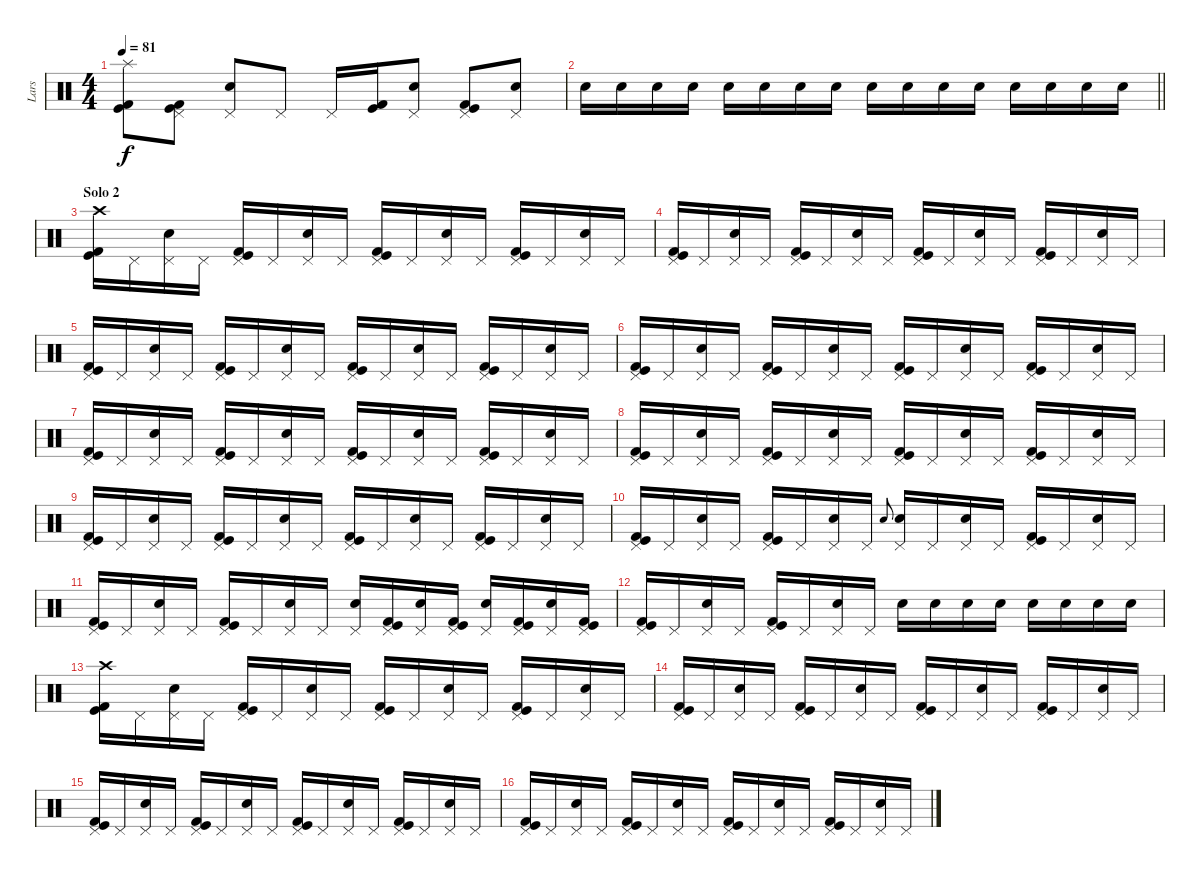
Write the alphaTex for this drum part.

\track ("Lars" "Lars") {instrument percussion}
\staff {score}
\articulation defaults
\ts (4 4)
\tempo 81
\clef neutral
\ks c
("Splash (hit)" "Kick (hit)" "Kick (hit) 2").8{dy f} ("Pedal Hi-Hat (hit)" "Kick (hit)" "Kick (hit) 2").8 ("Pedal Hi-Hat (hit)" "Electric Snare (hit)").8 "Pedal Hi-Hat (hit)".8 "Pedal Hi-Hat (hit)".16 ("Kick (hit)" "Kick (hit) 2").16 ("Pedal Hi-Hat (hit)" "Electric Snare (hit)").8 ("Pedal Hi-Hat (hit)" "Kick (hit)" "Kick (hit) 2").8 ("Pedal Hi-Hat (hit)" "Electric Snare (hit)").8 |
\barLineRight lightlight "Electric Snare (hit)".16 "Electric Snare (hit)".16 "Electric Snare (hit)".16 "Electric Snare (hit)".16 "Electric Snare (hit)".16 "Electric Snare (hit)".16 "Electric Snare (hit)".16 "Electric Snare (hit)".16 "Electric Snare (hit)".16 "Electric Snare (hit)".16 "Electric Snare (hit)".16 "Electric Snare (hit)".16 "Electric Snare (hit)".16 "Electric Snare (hit)".16 "Electric Snare (hit)".16 "Electric Snare (hit)".16
|
\section ("" "Solo 2")
("Crash high (hit)" "Kick (hit)" "Kick (hit) 2").16 "Pedal Hi-Hat (hit)".16 ("Pedal Hi-Hat (hit)" "Electric Snare (hit)").16 "Pedal Hi-Hat (hit)".16 ("Pedal Hi-Hat (hit)" "Kick (hit)" "Kick (hit) 2").16 "Pedal Hi-Hat (hit)".16 ("Pedal Hi-Hat (hit)" "Electric Snare (hit)").16 "Pedal Hi-Hat (hit)".16 ("Pedal Hi-Hat (hit)" "Kick (hit)" "Kick (hit) 2").16 "Pedal Hi-Hat (hit)".16 ("Pedal Hi-Hat (hit)" "Electric Snare (hit)").16 "Pedal Hi-Hat (hit)".16 ("Pedal Hi-Hat (hit)" "Kick (hit)" "Kick (hit) 2").16 "Pedal Hi-Hat (hit)".16 ("Pedal Hi-Hat (hit)" "Electric Snare (hit)").16 "Pedal Hi-Hat (hit)".16 |
("Pedal Hi-Hat (hit)" "Kick (hit)" "Kick (hit) 2").16 "Pedal Hi-Hat (hit)".16 ("Pedal Hi-Hat (hit)" "Electric Snare (hit)").16 "Pedal Hi-Hat (hit)".16 ("Pedal Hi-Hat (hit)" "Kick (hit)" "Kick (hit) 2").16 "Pedal Hi-Hat (hit)".16 ("Pedal Hi-Hat (hit)" "Electric Snare (hit)").16 "Pedal Hi-Hat (hit)".16 ("Pedal Hi-Hat (hit)" "Kick (hit)" "Kick (hit) 2").16 "Pedal Hi-Hat (hit)".16 ("Pedal Hi-Hat (hit)" "Electric Snare (hit)").16 "Pedal Hi-Hat (hit)".16 ("Pedal Hi-Hat (hit)" "Kick (hit)" "Kick (hit) 2").16 "Pedal Hi-Hat (hit)".16 ("Pedal Hi-Hat (hit)" "Electric Snare (hit)").16 "Pedal Hi-Hat (hit)".16 |
("Pedal Hi-Hat (hit)" "Kick (hit)" "Kick (hit) 2").16 "Pedal Hi-Hat (hit)".16 ("Pedal Hi-Hat (hit)" "Electric Snare (hit)").16 "Pedal Hi-Hat (hit)".16 ("Pedal Hi-Hat (hit)" "Kick (hit)" "Kick (hit) 2").16 "Pedal Hi-Hat (hit)".16 ("Pedal Hi-Hat (hit)" "Electric Snare (hit)").16 "Pedal Hi-Hat (hit)".16 ("Pedal Hi-Hat (hit)" "Kick (hit)" "Kick (hit) 2").16 "Pedal Hi-Hat (hit)".16 ("Pedal Hi-Hat (hit)" "Electric Snare (hit)").16 "Pedal Hi-Hat (hit)".16 ("Pedal Hi-Hat (hit)" "Kick (hit)" "Kick (hit) 2").16 "Pedal Hi-Hat (hit)".16 ("Pedal Hi-Hat (hit)" "Electric Snare (hit)").16 "Pedal Hi-Hat (hit)".16 |
("Pedal Hi-Hat (hit)" "Kick (hit)" "Kick (hit) 2").16 "Pedal Hi-Hat (hit)".16 ("Pedal Hi-Hat (hit)" "Electric Snare (hit)").16 "Pedal Hi-Hat (hit)".16 ("Pedal Hi-Hat (hit)" "Kick (hit)" "Kick (hit) 2").16 "Pedal Hi-Hat (hit)".16 ("Pedal Hi-Hat (hit)" "Electric Snare (hit)").16 "Pedal Hi-Hat (hit)".16 ("Pedal Hi-Hat (hit)" "Kick (hit)" "Kick (hit) 2").16 "Pedal Hi-Hat (hit)".16 ("Pedal Hi-Hat (hit)" "Electric Snare (hit)").16 "Pedal Hi-Hat (hit)".16 ("Pedal Hi-Hat (hit)" "Kick (hit)" "Kick (hit) 2").16 "Pedal Hi-Hat (hit)".16 ("Pedal Hi-Hat (hit)" "Electric Snare (hit)").16 "Pedal Hi-Hat (hit)".16 |
("Pedal Hi-Hat (hit)" "Kick (hit)" "Kick (hit) 2").16 "Pedal Hi-Hat (hit)".16 ("Pedal Hi-Hat (hit)" "Electric Snare (hit)").16 "Pedal Hi-Hat (hit)".16 ("Pedal Hi-Hat (hit)" "Kick (hit)" "Kick (hit) 2").16 "Pedal Hi-Hat (hit)".16 ("Pedal Hi-Hat (hit)" "Electric Snare (hit)").16 "Pedal Hi-Hat (hit)".16 ("Pedal Hi-Hat (hit)" "Kick (hit)" "Kick (hit) 2").16 "Pedal Hi-Hat (hit)".16 ("Pedal Hi-Hat (hit)" "Electric Snare (hit)").16 "Pedal Hi-Hat (hit)".16 ("Pedal Hi-Hat (hit)" "Kick (hit)" "Kick (hit) 2").16 "Pedal Hi-Hat (hit)".16 ("Pedal Hi-Hat (hit)" "Electric Snare (hit)").16 "Pedal Hi-Hat (hit)".16 |
("Pedal Hi-Hat (hit)" "Kick (hit)" "Kick (hit) 2").16 "Pedal Hi-Hat (hit)".16 ("Pedal Hi-Hat (hit)" "Electric Snare (hit)").16 "Pedal Hi-Hat (hit)".16 ("Pedal Hi-Hat (hit)" "Kick (hit)" "Kick (hit) 2").16 "Pedal Hi-Hat (hit)".16 ("Pedal Hi-Hat (hit)" "Electric Snare (hit)").16 "Pedal Hi-Hat (hit)".16 ("Pedal Hi-Hat (hit)" "Kick (hit)" "Kick (hit) 2").16 "Pedal Hi-Hat (hit)".16 ("Pedal Hi-Hat (hit)" "Electric Snare (hit)").16 "Pedal Hi-Hat (hit)".16 ("Pedal Hi-Hat (hit)" "Kick (hit)" "Kick (hit) 2").16 "Pedal Hi-Hat (hit)".16 ("Pedal Hi-Hat (hit)" "Electric Snare (hit)").16 "Pedal Hi-Hat (hit)".16 |
("Pedal Hi-Hat (hit)" "Kick (hit)" "Kick (hit) 2").16 "Pedal Hi-Hat (hit)".16 ("Pedal Hi-Hat (hit)" "Electric Snare (hit)").16 "Pedal Hi-Hat (hit)".16 ("Pedal Hi-Hat (hit)" "Kick (hit)" "Kick (hit) 2").16 "Pedal Hi-Hat (hit)".16 ("Pedal Hi-Hat (hit)" "Electric Snare (hit)").16 "Pedal Hi-Hat (hit)".16 ("Pedal Hi-Hat (hit)" "Kick (hit)" "Kick (hit) 2").16 "Pedal Hi-Hat (hit)".16 ("Pedal Hi-Hat (hit)" "Electric Snare (hit)").16 "Pedal Hi-Hat (hit)".16 ("Pedal Hi-Hat (hit)" "Kick (hit)" "Kick (hit) 2").16 "Pedal Hi-Hat (hit)".16 ("Pedal Hi-Hat (hit)" "Electric Snare (hit)").16 "Pedal Hi-Hat (hit)".16 |
("Pedal Hi-Hat (hit)" "Kick (hit)" "Kick (hit) 2").16 "Pedal Hi-Hat (hit)".16 ("Pedal Hi-Hat (hit)" "Electric Snare (hit)").16 "Pedal Hi-Hat (hit)".16 ("Pedal Hi-Hat (hit)" "Kick (hit)" "Kick (hit) 2").16 "Pedal Hi-Hat (hit)".16 ("Pedal Hi-Hat (hit)" "Electric Snare (hit)").16 "Pedal Hi-Hat (hit)".16 "Electric Snare (hit)".8{gr onbeat} ("Pedal Hi-Hat (hit)" "Electric Snare (hit)").16 "Pedal Hi-Hat (hit)".16 ("Pedal Hi-Hat (hit)" "Electric Snare (hit)").16 "Pedal Hi-Hat (hit)".16 ("Pedal Hi-Hat (hit)" "Kick (hit)" "Kick (hit) 2").16 "Pedal Hi-Hat (hit)".16 ("Pedal Hi-Hat (hit)" "Electric Snare (hit)").16 "Pedal Hi-Hat (hit)".16 |
("Pedal Hi-Hat (hit)" "Kick (hit)" "Kick (hit) 2").16 "Pedal Hi-Hat (hit)".16 ("Pedal Hi-Hat (hit)" "Electric Snare (hit)").16 "Pedal Hi-Hat (hit)".16 ("Pedal Hi-Hat (hit)" "Kick (hit)" "Kick (hit) 2").16 "Pedal Hi-Hat (hit)".16 ("Pedal Hi-Hat (hit)" "Electric Snare (hit)").16 "Pedal Hi-Hat (hit)".16 ("Pedal Hi-Hat (hit)" "Electric Snare (hit)").16 ("Pedal Hi-Hat (hit)" "Kick (hit)" "Kick (hit) 2").16 ("Pedal Hi-Hat (hit)" "Electric Snare (hit)").16 ("Pedal Hi-Hat (hit)" "Kick (hit)" "Kick (hit) 2").16 ("Pedal Hi-Hat (hit)" "Electric Snare (hit)").16 ("Pedal Hi-Hat (hit)" "Kick (hit)" "Kick (hit) 2").16 ("Pedal Hi-Hat (hit)" "Electric Snare (hit)").16 ("Pedal Hi-Hat (hit)" "Kick (hit)" "Kick (hit) 2").16 |
("Pedal Hi-Hat (hit)" "Kick (hit)" "Kick (hit) 2").16 "Pedal Hi-Hat (hit)".16 ("Pedal Hi-Hat (hit)" "Electric Snare (hit)").16 "Pedal Hi-Hat (hit)".16 ("Pedal Hi-Hat (hit)" "Kick (hit)" "Kick (hit) 2").16 "Pedal Hi-Hat (hit)".16 ("Pedal Hi-Hat (hit)" "Electric Snare (hit)").16 "Pedal Hi-Hat (hit)".16 "Electric Snare (hit)".16 "Electric Snare (hit)".16 "Electric Snare (hit)".16 "Electric Snare (hit)".16 "Electric Snare (hit)".16 "Electric Snare (hit)".16 "Electric Snare (hit)".16 "Electric Snare (hit)".16 |
("Crash high (hit)" "Kick (hit)" "Kick (hit) 2").16 "Pedal Hi-Hat (hit)".16 ("Pedal Hi-Hat (hit)" "Electric Snare (hit)").16 "Pedal Hi-Hat (hit)".16 ("Pedal Hi-Hat (hit)" "Kick (hit)" "Kick (hit) 2").16 "Pedal Hi-Hat (hit)".16 ("Pedal Hi-Hat (hit)" "Electric Snare (hit)").16 "Pedal Hi-Hat (hit)".16 ("Pedal Hi-Hat (hit)" "Kick (hit)" "Kick (hit) 2").16 "Pedal Hi-Hat (hit)".16 ("Pedal Hi-Hat (hit)" "Electric Snare (hit)").16 "Pedal Hi-Hat (hit)".16 ("Pedal Hi-Hat (hit)" "Kick (hit)" "Kick (hit) 2").16 "Pedal Hi-Hat (hit)".16 ("Pedal Hi-Hat (hit)" "Electric Snare (hit)").16 "Pedal Hi-Hat (hit)".16 |
("Pedal Hi-Hat (hit)" "Kick (hit)" "Kick (hit) 2").16 "Pedal Hi-Hat (hit)".16 ("Pedal Hi-Hat (hit)" "Electric Snare (hit)").16 "Pedal Hi-Hat (hit)".16 ("Pedal Hi-Hat (hit)" "Kick (hit)" "Kick (hit) 2").16 "Pedal Hi-Hat (hit)".16 ("Pedal Hi-Hat (hit)" "Electric Snare (hit)").16 "Pedal Hi-Hat (hit)".16 ("Pedal Hi-Hat (hit)" "Kick (hit)" "Kick (hit) 2").16 "Pedal Hi-Hat (hit)".16 ("Pedal Hi-Hat (hit)" "Electric Snare (hit)").16 "Pedal Hi-Hat (hit)".16 ("Pedal Hi-Hat (hit)" "Kick (hit)" "Kick (hit) 2").16 "Pedal Hi-Hat (hit)".16 ("Pedal Hi-Hat (hit)" "Electric Snare (hit)").16 "Pedal Hi-Hat (hit)".16 |
("Pedal Hi-Hat (hit)" "Kick (hit)" "Kick (hit) 2").16 "Pedal Hi-Hat (hit)".16 ("Pedal Hi-Hat (hit)" "Electric Snare (hit)").16 "Pedal Hi-Hat (hit)".16 ("Pedal Hi-Hat (hit)" "Kick (hit)" "Kick (hit) 2").16 "Pedal Hi-Hat (hit)".16 ("Pedal Hi-Hat (hit)" "Electric Snare (hit)").16 "Pedal Hi-Hat (hit)".16 ("Pedal Hi-Hat (hit)" "Kick (hit)" "Kick (hit) 2").16 "Pedal Hi-Hat (hit)".16 ("Pedal Hi-Hat (hit)" "Electric Snare (hit)").16 "Pedal Hi-Hat (hit)".16 ("Pedal Hi-Hat (hit)" "Kick (hit)" "Kick (hit) 2").16 "Pedal Hi-Hat (hit)".16 ("Pedal Hi-Hat (hit)" "Electric Snare (hit)").16 "Pedal Hi-Hat (hit)".16 |
("Pedal Hi-Hat (hit)" "Kick (hit)" "Kick (hit) 2").16 "Pedal Hi-Hat (hit)".16 ("Pedal Hi-Hat (hit)" "Electric Snare (hit)").16 "Pedal Hi-Hat (hit)".16 ("Pedal Hi-Hat (hit)" "Kick (hit)" "Kick (hit) 2").16 "Pedal Hi-Hat (hit)".16 ("Pedal Hi-Hat (hit)" "Electric Snare (hit)").16 "Pedal Hi-Hat (hit)".16 ("Pedal Hi-Hat (hit)" "Kick (hit)" "Kick (hit) 2").16 "Pedal Hi-Hat (hit)".16 ("Pedal Hi-Hat (hit)" "Electric Snare (hit)").16 "Pedal Hi-Hat (hit)".16 ("Pedal Hi-Hat (hit)" "Kick (hit)" "Kick (hit) 2").16 "Pedal Hi-Hat (hit)".16 ("Pedal Hi-Hat (hit)" "Electric Snare (hit)").16 "Pedal Hi-Hat (hit)".16
